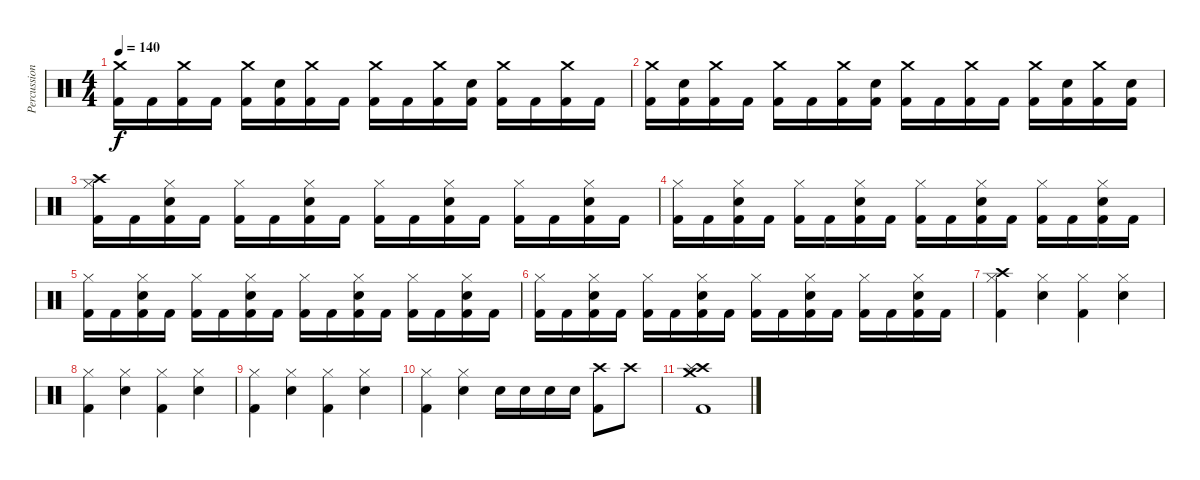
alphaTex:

\track ("Percussion" "Percussion") {instrument percussion}
\staff {score}
\articulation defaults
\ts (4 4)
\tempo 140
\clef neutral
\ks c
("Crash medium (hit)" "Kick (hit) 2").16{dy f} "Kick (hit) 2".16 ("Crash medium (hit)" "Kick (hit) 2").16 "Kick (hit) 2".16 ("Crash medium (hit)" "Kick (hit) 2").16 ("Electric Snare (hit)" "Kick (hit) 2").16 ("Crash medium (hit)" "Kick (hit) 2").16 "Kick (hit) 2".16 ("Crash medium (hit)" "Kick (hit) 2").16 "Kick (hit) 2".16 ("Crash medium (hit)" "Kick (hit) 2").16 ("Electric Snare (hit)" "Kick (hit) 2").16 ("Crash medium (hit)" "Kick (hit) 2").16 "Kick (hit) 2".16 ("Crash medium (hit)" "Kick (hit) 2").16 "Kick (hit) 2".16 |
("Crash medium (hit)" "Kick (hit) 2").16 ("Electric Snare (hit)" "Kick (hit) 2").16 ("Crash medium (hit)" "Kick (hit) 2").16 "Kick (hit) 2".16 ("Crash medium (hit)" "Kick (hit) 2").16 "Kick (hit) 2".16 ("Crash medium (hit)" "Kick (hit) 2").16 ("Electric Snare (hit)" "Kick (hit) 2").16 ("Crash medium (hit)" "Kick (hit) 2").16 "Kick (hit) 2".16 ("Crash medium (hit)" "Kick (hit) 2").16 "Kick (hit) 2".16 ("Crash medium (hit)" "Kick (hit) 2").16 ("Electric Snare (hit)" "Kick (hit) 2").16 ("Crash medium (hit)" "Kick (hit) 2").16 ("Electric Snare (hit)" "Kick (hit) 2").16 |
("Hi-Hat (closed)" "Crash high (hit)" "Kick (hit) 2").16 "Kick (hit) 2".16 ("Hi-Hat (closed)" "Electric Snare (hit)" "Kick (hit) 2").16 "Kick (hit) 2".16 ("Hi-Hat (closed)" "Kick (hit) 2").16 "Kick (hit) 2".16 ("Hi-Hat (closed)" "Electric Snare (hit)" "Kick (hit) 2").16 "Kick (hit) 2".16 ("Hi-Hat (closed)" "Kick (hit) 2").16 "Kick (hit) 2".16 ("Hi-Hat (closed)" "Electric Snare (hit)" "Kick (hit) 2").16 "Kick (hit) 2".16 ("Hi-Hat (closed)" "Kick (hit) 2").16 "Kick (hit) 2".16 ("Hi-Hat (closed)" "Electric Snare (hit)" "Kick (hit) 2").16 "Kick (hit) 2".16 |
("Hi-Hat (closed)" "Kick (hit) 2").16 "Kick (hit) 2".16 ("Hi-Hat (closed)" "Electric Snare (hit)" "Kick (hit) 2").16 "Kick (hit) 2".16 ("Hi-Hat (closed)" "Kick (hit) 2").16 "Kick (hit) 2".16 ("Hi-Hat (closed)" "Electric Snare (hit)" "Kick (hit) 2").16 "Kick (hit) 2".16 ("Hi-Hat (closed)" "Kick (hit) 2").16 "Kick (hit) 2".16 ("Hi-Hat (closed)" "Electric Snare (hit)" "Kick (hit) 2").16 "Kick (hit) 2".16 ("Hi-Hat (closed)" "Kick (hit) 2").16 "Kick (hit) 2".16 ("Hi-Hat (closed)" "Electric Snare (hit)" "Kick (hit) 2").16 "Kick (hit) 2".16 |
("Hi-Hat (closed)" "Kick (hit) 2").16 "Kick (hit) 2".16 ("Hi-Hat (closed)" "Electric Snare (hit)" "Kick (hit) 2").16 "Kick (hit) 2".16 ("Hi-Hat (closed)" "Kick (hit) 2").16 "Kick (hit) 2".16 ("Hi-Hat (closed)" "Electric Snare (hit)" "Kick (hit) 2").16 "Kick (hit) 2".16 ("Hi-Hat (closed)" "Kick (hit) 2").16 "Kick (hit) 2".16 ("Hi-Hat (closed)" "Electric Snare (hit)" "Kick (hit) 2").16 "Kick (hit) 2".16 ("Hi-Hat (closed)" "Kick (hit) 2").16 "Kick (hit) 2".16 ("Hi-Hat (closed)" "Electric Snare (hit)" "Kick (hit) 2").16 "Kick (hit) 2".16 |
("Hi-Hat (closed)" "Kick (hit) 2").16 "Kick (hit) 2".16 ("Hi-Hat (closed)" "Electric Snare (hit)" "Kick (hit) 2").16 "Kick (hit) 2".16 ("Hi-Hat (closed)" "Kick (hit) 2").16 "Kick (hit) 2".16 ("Hi-Hat (closed)" "Electric Snare (hit)" "Kick (hit) 2").16 "Kick (hit) 2".16 ("Hi-Hat (closed)" "Kick (hit) 2").16 "Kick (hit) 2".16 ("Hi-Hat (closed)" "Electric Snare (hit)" "Kick (hit) 2").16 "Kick (hit) 2".16 ("Hi-Hat (closed)" "Kick (hit) 2").16 "Kick (hit) 2".16 ("Hi-Hat (closed)" "Electric Snare (hit)" "Kick (hit) 2").16 "Kick (hit) 2".16 |
("Hi-Hat (closed)" "Crash high (hit)" "Kick (hit) 2").4 ("Hi-Hat (closed)" "Electric Snare (hit)").4 ("Hi-Hat (closed)" "Kick (hit) 2").4 ("Hi-Hat (closed)" "Electric Snare (hit)").4 |
("Hi-Hat (closed)" "Kick (hit) 2").4 ("Hi-Hat (closed)" "Electric Snare (hit)").4 ("Hi-Hat (closed)" "Kick (hit) 2").4 ("Hi-Hat (closed)" "Electric Snare (hit)").4 |
("Hi-Hat (closed)" "Kick (hit) 2").4 ("Hi-Hat (closed)" "Electric Snare (hit)").4 ("Hi-Hat (closed)" "Kick (hit) 2").4 ("Hi-Hat (closed)" "Electric Snare (hit)").4 |
("Hi-Hat (closed)" "Kick (hit) 2").4 ("Hi-Hat (closed)" "Electric Snare (hit)").4 "Electric Snare (hit)".16 "Electric Snare (hit)".16 "Electric Snare (hit)".16 "Electric Snare (hit)".16 ("Crash high (hit)" "Kick (hit) 2").8 "Crash high (hit)".8 |
("Crash high (hit)" "Kick (hit) 2" "Splash (hit)" "Crash medium (hit)").1
